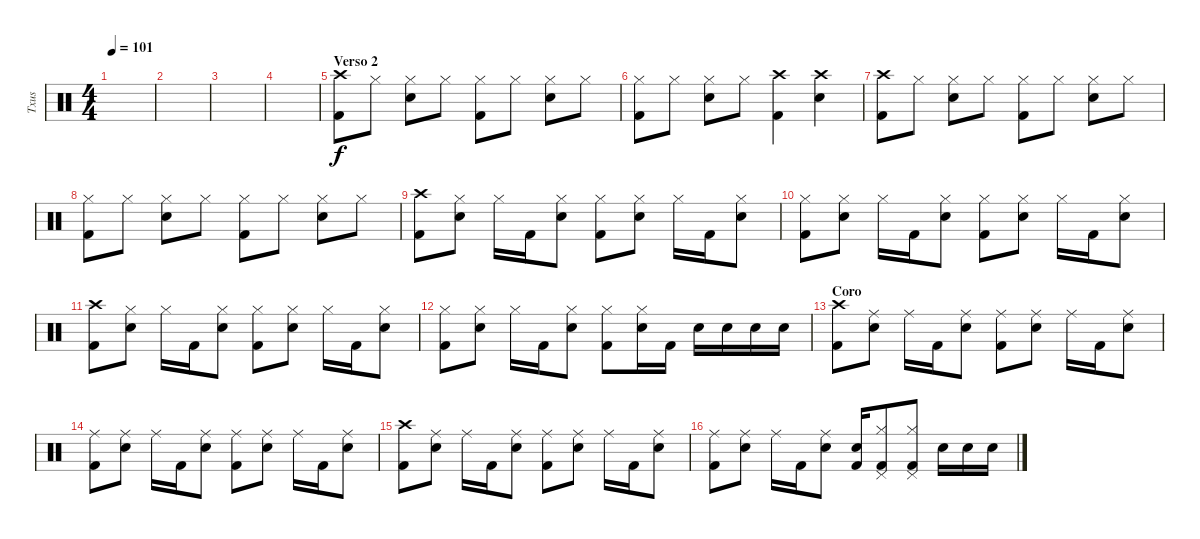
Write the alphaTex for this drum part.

\track ("Txus" "Txus") {instrument percussion}
\staff {score}
\articulation defaults
\ts (4 4)
\tempo 101
\clef neutral
\ks c
|
|
|
|
\section ("" "Verso 2")
("Kick (hit) 2" "Crash high (hit)").8 "Hi-Hat (closed)".8 ("Electric Snare (hit)" "Hi-Hat (closed)").8 "Hi-Hat (closed)".8 ("Kick (hit) 2" "Hi-Hat (closed)").8 "Hi-Hat (closed)".8 ("Electric Snare (hit)" "Hi-Hat (closed)").8 "Hi-Hat (closed)".8 |
("Kick (hit) 2" "Hi-Hat (closed)").8 "Hi-Hat (closed)".8 ("Electric Snare (hit)" "Hi-Hat (closed)").8 "Hi-Hat (closed)".8 ("Kick (hit) 2" "Crash high (hit)").4 ("Electric Snare (hit)" "Crash high (hit)").4 |
("Kick (hit) 2" "Crash high (hit)").8 "Hi-Hat (closed)".8 ("Electric Snare (hit)" "Hi-Hat (closed)").8 "Hi-Hat (closed)".8 ("Kick (hit) 2" "Hi-Hat (closed)").8 "Hi-Hat (closed)".8 ("Electric Snare (hit)" "Hi-Hat (closed)").8 "Hi-Hat (closed)".8 |
("Kick (hit) 2" "Hi-Hat (closed)").8 "Hi-Hat (closed)".8 ("Electric Snare (hit)" "Hi-Hat (closed)").8 "Hi-Hat (closed)".8 ("Kick (hit) 2" "Hi-Hat (closed)").8 "Hi-Hat (closed)".8 ("Electric Snare (hit)" "Hi-Hat (closed)").8 "Hi-Hat (closed)".8 |
("Kick (hit) 2" "Crash high (hit)").8 ("Electric Snare (hit)" "Hi-Hat (closed)").8 "Hi-Hat (closed)".16 "Kick (hit) 2".16 ("Electric Snare (hit)" "Hi-Hat (closed)").8 ("Kick (hit) 2" "Hi-Hat (closed)").8 ("Electric Snare (hit)" "Hi-Hat (closed)").8 "Hi-Hat (closed)".16 "Kick (hit) 2".16 ("Electric Snare (hit)" "Hi-Hat (closed)").8 |
("Kick (hit) 2" "Hi-Hat (closed)").8 ("Electric Snare (hit)" "Hi-Hat (closed)").8 "Hi-Hat (closed)".16 "Kick (hit) 2".16 ("Electric Snare (hit)" "Hi-Hat (closed)").8 ("Kick (hit) 2" "Hi-Hat (closed)").8 ("Electric Snare (hit)" "Hi-Hat (closed)").8 "Hi-Hat (closed)".16 "Kick (hit) 2".16 ("Electric Snare (hit)" "Hi-Hat (closed)").8 |
("Kick (hit) 2" "Crash high (hit)").8 ("Electric Snare (hit)" "Hi-Hat (closed)").8 "Hi-Hat (closed)".16 "Kick (hit) 2".16 ("Electric Snare (hit)" "Hi-Hat (closed)").8 ("Kick (hit) 2" "Hi-Hat (closed)").8 ("Electric Snare (hit)" "Hi-Hat (closed)").8 "Hi-Hat (closed)".16 "Kick (hit) 2".16 ("Electric Snare (hit)" "Hi-Hat (closed)").8 |
("Kick (hit) 2" "Hi-Hat (closed)").8 ("Electric Snare (hit)" "Hi-Hat (closed)").8 "Hi-Hat (closed)".16 "Kick (hit) 2".16 ("Electric Snare (hit)" "Hi-Hat (closed)").8 ("Kick (hit) 2" "Hi-Hat (closed)").8 ("Electric Snare (hit)" "Hi-Hat (closed)").16 "Kick (hit) 2".16 "Electric Snare (hit)".16 "Electric Snare (hit)".16 "Electric Snare (hit)".16 "Electric Snare (hit)".16 |
\section ("" "Coro")
("Kick (hit) 2" "Crash high (hit)").8 ("Electric Snare (hit)" "Ride (middle)").8 "Ride (middle)".16 "Kick (hit) 2".16 ("Electric Snare (hit)" "Ride (middle)").8 ("Kick (hit) 2" "Ride (middle)").8 ("Electric Snare (hit)" "Ride (middle)").8 "Ride (middle)".16 "Kick (hit) 2".16 ("Electric Snare (hit)" "Ride (middle)").8 |
("Kick (hit) 2" "Ride (middle)").8 ("Electric Snare (hit)" "Ride (middle)").8 "Ride (middle)".16 "Kick (hit) 2".16 ("Electric Snare (hit)" "Ride (middle)").8 ("Kick (hit) 2" "Ride (middle)").8 ("Electric Snare (hit)" "Ride (middle)").8 "Ride (middle)".16 "Kick (hit) 2".16 ("Electric Snare (hit)" "Ride (middle)").8 |
("Kick (hit) 2" "Crash high (hit)").8 ("Electric Snare (hit)" "Ride (middle)").8 "Ride (middle)".16 "Kick (hit) 2".16 ("Electric Snare (hit)" "Ride (middle)").8 ("Kick (hit) 2" "Ride (middle)").8 ("Electric Snare (hit)" "Ride (middle)").8 "Ride (middle)".16 "Kick (hit) 2".16 ("Electric Snare (hit)" "Ride (middle)").8 |
("Kick (hit) 2" "Ride (middle)").8 ("Electric Snare (hit)" "Ride (middle)").8 "Ride (middle)".16 "Kick (hit) 2".16 ("Electric Snare (hit)" "Ride (middle)").8 ("Kick (hit) 2" "Electric Snare (hit)").16 ("Kick (hit) 2" "Hi-Hat (closed)" "Pedal Hi-Hat (hit)").8 ("Kick (hit) 2" "Hi-Hat (closed)" "Pedal Hi-Hat (hit)").8 "Electric Snare (hit)".16 "Electric Snare (hit)".16 "Electric Snare (hit)".16
